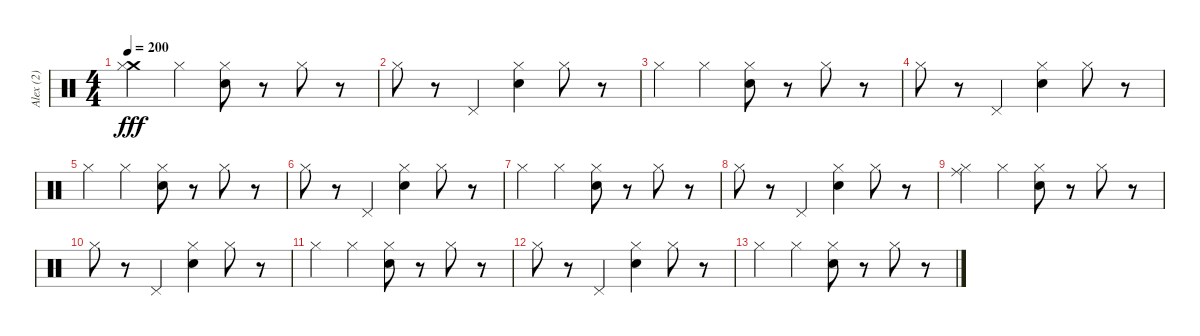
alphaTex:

\track ("Alex (2)" "Alex (2)") {instrument percussion}
\staff {score}
\articulation defaults
\ts (4 4)
\tempo 200
\clef neutral
\ks c
("Crash medium (hit)" "Hi-Hat (closed)").4{dy fff} "Hi-Hat (closed)".4 ("Electric Snare (hit)" "Hi-Hat (closed)").8 r.8 "Hi-Hat (closed)".8 r.8 |
"Hi-Hat (closed)".8 r.8 "Pedal Hi-Hat (hit)".4 ("Electric Snare (hit)" "Hi-Hat (closed)").4 "Hi-Hat (closed)".8 r.8 |
"Hi-Hat (closed)".4 "Hi-Hat (closed)".4 ("Electric Snare (hit)" "Hi-Hat (closed)").8 r.8 "Hi-Hat (closed)".8 r.8 |
"Hi-Hat (closed)".8 r.8 "Pedal Hi-Hat (hit)".4 ("Electric Snare (hit)" "Hi-Hat (closed)").4 "Hi-Hat (closed)".8 r.8 |
"Hi-Hat (closed)".4 "Hi-Hat (closed)".4 ("Electric Snare (hit)" "Hi-Hat (closed)").8 r.8 "Hi-Hat (closed)".8 r.8 |
"Hi-Hat (closed)".8 r.8 "Pedal Hi-Hat (hit)".4 ("Electric Snare (hit)" "Hi-Hat (closed)").4 "Hi-Hat (closed)".8 r.8 |
"Hi-Hat (closed)".4 "Hi-Hat (closed)".4 ("Electric Snare (hit)" "Hi-Hat (closed)").8 r.8 "Hi-Hat (closed)".8 r.8 |
"Hi-Hat (closed)".8 r.8 "Pedal Hi-Hat (hit)".4 ("Electric Snare (hit)" "Hi-Hat (closed)").4 "Hi-Hat (closed)".8 r.8 |
("Hi-Hat (closed)" "Ride (middle)").4 "Hi-Hat (closed)".4 ("Electric Snare (hit)" "Hi-Hat (closed)").8 r.8 "Hi-Hat (closed)".8 r.8 |
"Hi-Hat (closed)".8 r.8 "Pedal Hi-Hat (hit)".4 ("Electric Snare (hit)" "Hi-Hat (closed)").4 "Hi-Hat (closed)".8 r.8 |
"Hi-Hat (closed)".4 "Hi-Hat (closed)".4 ("Electric Snare (hit)" "Hi-Hat (closed)").8 r.8 "Hi-Hat (closed)".8 r.8 |
"Hi-Hat (closed)".8 r.8 "Pedal Hi-Hat (hit)".4 ("Electric Snare (hit)" "Hi-Hat (closed)").4 "Hi-Hat (closed)".8 r.8 |
"Hi-Hat (closed)".4 "Hi-Hat (closed)".4 ("Electric Snare (hit)" "Hi-Hat (closed)").8 r.8 "Hi-Hat (closed)".8 r.8
